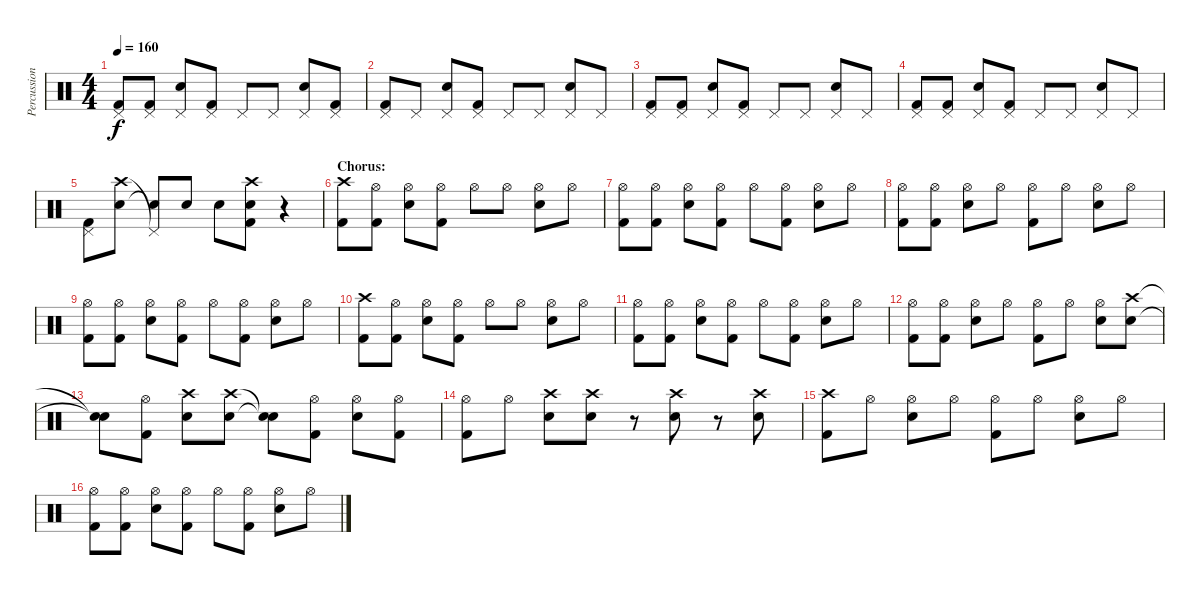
\track ("Percussion" "Percussion") {instrument percussion}
\staff {score}
\articulation defaults
\ts (4 4)
\tempo 160
\clef neutral
\ks c
("Pedal Hi-Hat (hit)" "Kick (hit) 2").8{dy f} ("Pedal Hi-Hat (hit)" "Kick (hit) 2").8 ("Pedal Hi-Hat (hit)" "Snare (hit) 2").8 ("Pedal Hi-Hat (hit)" "Kick (hit) 2").8 "Pedal Hi-Hat (hit)".8 "Pedal Hi-Hat (hit)".8 ("Pedal Hi-Hat (hit)" "Snare (hit) 2").8 ("Pedal Hi-Hat (hit)" "Kick (hit) 2").8 |
("Pedal Hi-Hat (hit)" "Kick (hit) 2").8 "Pedal Hi-Hat (hit)".8 ("Pedal Hi-Hat (hit)" "Snare (hit) 2").8 ("Pedal Hi-Hat (hit)" "Kick (hit) 2").8 "Pedal Hi-Hat (hit)".8 "Pedal Hi-Hat (hit)".8 ("Pedal Hi-Hat (hit)" "Snare (hit) 2").8 "Pedal Hi-Hat (hit)".8 |
("Pedal Hi-Hat (hit)" "Kick (hit) 2").8 ("Pedal Hi-Hat (hit)" "Kick (hit) 2").8 ("Pedal Hi-Hat (hit)" "Snare (hit) 2").8 ("Pedal Hi-Hat (hit)" "Kick (hit) 2").8 "Pedal Hi-Hat (hit)".8 "Pedal Hi-Hat (hit)".8 ("Pedal Hi-Hat (hit)" "Snare (hit) 2").8 "Pedal Hi-Hat (hit)".8 |
("Pedal Hi-Hat (hit)" "Kick (hit) 2").8 ("Pedal Hi-Hat (hit)" "Kick (hit) 2").8 ("Pedal Hi-Hat (hit)" "Snare (hit) 2").8 ("Pedal Hi-Hat (hit)" "Kick (hit) 2").8 "Pedal Hi-Hat (hit)".8 "Pedal Hi-Hat (hit)".8 ("Pedal Hi-Hat (hit)" "Snare (hit) 2").8 "Pedal Hi-Hat (hit)".8 |
("Pedal Hi-Hat (hit)" "Kick (hit) 2").8 ("Crash high (hit)" "Snare (hit) 2").8 ("Pedal Hi-Hat (hit)"{t} "Snare (hit) 2"{t}).8 "Snare (hit) 2".8 "Snare (hit) 2".8 ("Crash high (hit)" "Snare (hit) 2" "Kick (hit) 2").8 r.4 |
\section ("" "Chorus:")
("Crash high (hit)" "Kick (hit) 2").8 ("Hi-Hat (open)" "Kick (hit) 2").8 ("Hi-Hat (open)" "Snare (hit) 2").8 ("Hi-Hat (open)" "Kick (hit) 2").8 "Hi-Hat (open)".8 "Hi-Hat (open)".8 ("Hi-Hat (open)" "Snare (hit) 2").8 "Hi-Hat (open)".8 |
("Hi-Hat (open)" "Kick (hit) 2").8 ("Hi-Hat (open)" "Kick (hit) 2").8 ("Hi-Hat (open)" "Snare (hit) 2").8 ("Hi-Hat (open)" "Kick (hit) 2").8 "Hi-Hat (open)".8 ("Hi-Hat (open)" "Kick (hit) 2").8 ("Hi-Hat (open)" "Snare (hit) 2").8 "Hi-Hat (open)".8 |
("Hi-Hat (open)" "Kick (hit) 2").8 ("Hi-Hat (open)" "Kick (hit) 2").8 ("Hi-Hat (open)" "Snare (hit) 2").8 "Hi-Hat (open)".8 ("Hi-Hat (open)" "Kick (hit) 2").8 "Hi-Hat (open)".8 ("Hi-Hat (open)" "Snare (hit) 2").8 "Hi-Hat (open)".8 |
("Hi-Hat (open)" "Kick (hit) 2").8 ("Hi-Hat (open)" "Kick (hit) 2").8 ("Hi-Hat (open)" "Snare (hit) 2").8 ("Hi-Hat (open)" "Kick (hit) 2").8 "Hi-Hat (open)".8 ("Hi-Hat (open)" "Kick (hit) 2").8 ("Hi-Hat (open)" "Snare (hit) 2").8 "Hi-Hat (open)".8 |
("Crash high (hit)" "Kick (hit) 2").8 ("Hi-Hat (open)" "Kick (hit) 2").8 ("Hi-Hat (open)" "Snare (hit) 2").8 ("Hi-Hat (open)" "Kick (hit) 2").8 "Hi-Hat (open)".8 "Hi-Hat (open)".8 ("Hi-Hat (open)" "Snare (hit) 2").8 "Hi-Hat (open)".8 |
("Hi-Hat (open)" "Kick (hit) 2").8 ("Hi-Hat (open)" "Kick (hit) 2").8 ("Hi-Hat (open)" "Snare (hit) 2").8 ("Hi-Hat (open)" "Kick (hit) 2").8 "Hi-Hat (open)".8 ("Hi-Hat (open)" "Kick (hit) 2").8 ("Hi-Hat (open)" "Snare (hit) 2").8 "Hi-Hat (open)".8 |
("Hi-Hat (open)" "Kick (hit) 2").8 ("Hi-Hat (open)" "Kick (hit) 2").8 ("Hi-Hat (open)" "Snare (hit) 2").8 "Hi-Hat (open)".8 ("Hi-Hat (open)" "Kick (hit) 2").8 "Hi-Hat (open)".8 ("Hi-Hat (open)" "Snare (hit) 2").8 ("Crash high (hit)" "Snare (hit) 2").8 |
("Snare (hit)"{t} "Snare (hit)"{t}).8 ("Hi-Hat (open)" "Kick (hit) 2").8 ("Crash high (hit)" "Snare (hit) 2").8 ("Crash high (hit)" "Snare (hit) 2").8 ("Snare (hit)"{t} "Snare (hit)"{t}).8 ("Hi-Hat (open)" "Kick (hit) 2").8 ("Hi-Hat (open)" "Snare (hit) 2").8 ("Hi-Hat (open)" "Kick (hit) 2").8 |
("Hi-Hat (open)" "Kick (hit) 2").8 "Hi-Hat (open)".8 ("Crash high (hit)" "Snare (hit) 2").8 ("Crash high (hit)" "Snare (hit) 2").8 r.8 ("Crash high (hit)" "Snare (hit) 2").8 r.8 ("Crash high (hit)" "Snare (hit) 2").8 |
("Crash high (hit)" "Kick (hit) 2").8 "Hi-Hat (open)".8 ("Hi-Hat (open)" "Snare (hit) 2").8 "Hi-Hat (open)".8 ("Hi-Hat (open)" "Kick (hit) 2").8 "Hi-Hat (open)".8 ("Hi-Hat (open)" "Snare (hit) 2").8 "Hi-Hat (open)".8 |
("Hi-Hat (open)" "Kick (hit) 2").8 ("Hi-Hat (open)" "Kick (hit) 2").8 ("Hi-Hat (open)" "Snare (hit) 2").8 ("Hi-Hat (open)" "Kick (hit) 2").8 "Hi-Hat (open)".8 ("Hi-Hat (open)" "Kick (hit) 2").8 ("Hi-Hat (open)" "Snare (hit) 2").8 "Hi-Hat (open)".8
